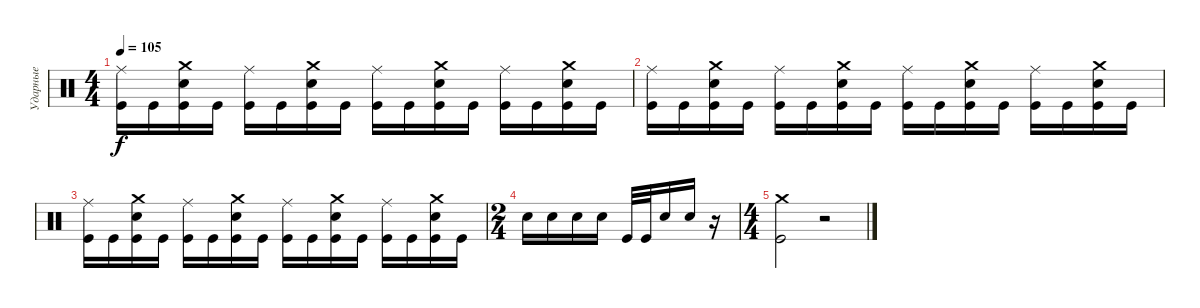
\track ("Ударные" "Ударные") {instrument percussion}
\staff {score}
\articulation defaults
\ts (4 4)
\tempo 105
\clef neutral
\ks c
("Kick (hit)" "Ride (middle)").16{dy f} "Kick (hit)".16 ("Kick (hit)" "Snare (hit) 2" "Crash medium (hit)").16 "Kick (hit)".16 ("Kick (hit)" "Ride (middle)").16 "Kick (hit)".16 ("Kick (hit)" "Snare (hit) 2" "Crash medium (hit)").16 "Kick (hit)".16 ("Kick (hit)" "Ride (middle)").16 "Kick (hit)".16 ("Kick (hit)" "Snare (hit) 2" "Crash medium (hit)").16 "Kick (hit)".16 ("Kick (hit)" "Ride (middle)").16 "Kick (hit)".16 ("Kick (hit)" "Snare (hit) 2" "Crash medium (hit)").16 "Kick (hit)".16 |
("Kick (hit)" "Ride (middle)").16 "Kick (hit)".16 ("Kick (hit)" "Snare (hit) 2" "Crash medium (hit)").16 "Kick (hit)".16 ("Kick (hit)" "Ride (middle)").16 "Kick (hit)".16 ("Kick (hit)" "Snare (hit) 2" "Crash medium (hit)").16 "Kick (hit)".16 ("Kick (hit)" "Ride (middle)").16 "Kick (hit)".16 ("Kick (hit)" "Snare (hit) 2" "Crash medium (hit)").16 "Kick (hit)".16 ("Kick (hit)" "Ride (middle)").16 "Kick (hit)".16 ("Kick (hit)" "Snare (hit) 2" "Crash medium (hit)").16 "Kick (hit)".16 |
("Kick (hit)" "Ride (middle)").16 "Kick (hit)".16 ("Kick (hit)" "Snare (hit) 2" "Crash medium (hit)").16 "Kick (hit)".16 ("Kick (hit)" "Ride (middle)").16 "Kick (hit)".16 ("Kick (hit)" "Snare (hit) 2" "Crash medium (hit)").16 "Kick (hit)".16 ("Kick (hit)" "Ride (middle)").16 "Kick (hit)".16 ("Kick (hit)" "Snare (hit) 2" "Crash medium (hit)").16 "Kick (hit)".16 ("Kick (hit)" "Ride (middle)").16 "Kick (hit)".16 ("Kick (hit)" "Snare (hit) 2" "Crash medium (hit)").16 "Kick (hit)".16 |
\ts (2 4)
"Snare (hit) 2".16 "Snare (hit) 2".16 "Snare (hit) 2".16 "Snare (hit) 2".16 "Kick (hit)".32 "Kick (hit)".32 "Snare (hit) 2".16 "Snare (hit) 2".16 r.16 |
\ts (4 4)
("Kick (hit)" "Crash medium (hit)").2 r.2
